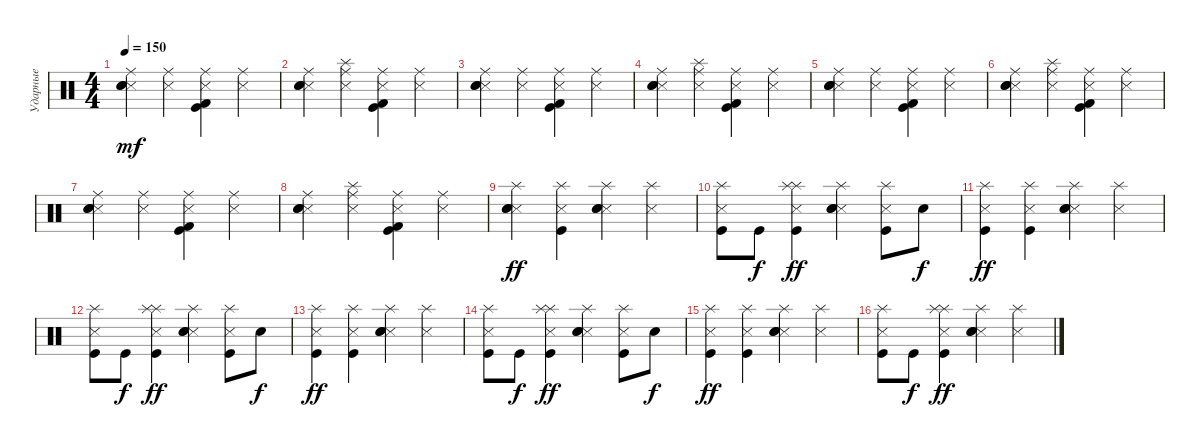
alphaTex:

\track ("Ударные" "Ударные") {instrument percussion}
\staff {score}
\articulation defaults
\ts (4 4)
\tempo 150
\clef neutral
\ks c
("Ride (middle)" "Metronome (hit)" "Electric Snare (hit)" "Snare (hit) 2").4{dy mf} ("Ride (middle)" "Metronome (hit)").4 ("Ride (middle)" "Metronome (hit)" "Kick (hit)" "Kick (hit) 2").4 ("Ride (middle)" "Metronome (hit)").4 |
("Ride (middle)" "Metronome (hit)" "Electric Snare (hit)" "Snare (hit) 2").4 ("Ride (middle)" "Metronome (hit)" "Splash (hit)").4 ("Ride (middle)" "Metronome (hit)" "Kick (hit)" "Kick (hit) 2").4 ("Ride (middle)" "Metronome (hit)").4 |
("Ride (middle)" "Metronome (hit)" "Snare (hit) 2" "Electric Snare (hit)").4 ("Ride (middle)" "Metronome (hit)").4 ("Ride (middle)" "Metronome (hit)" "Kick (hit)" "Kick (hit) 2").4 ("Ride (middle)" "Metronome (hit)").4 |
("Ride (middle)" "Metronome (hit)" "Snare (hit) 2" "Electric Snare (hit)").4 ("Ride (middle)" "Metronome (hit)" "Splash (hit)").4 ("Ride (middle)" "Metronome (hit)" "Kick (hit)" "Kick (hit) 2").4 ("Ride (middle)" "Metronome (hit)").4 |
("Ride (middle)" "Metronome (hit)" "Electric Snare (hit)" "Snare (hit) 2").4 ("Ride (middle)" "Metronome (hit)").4 ("Ride (middle)" "Metronome (hit)" "Kick (hit)" "Kick (hit) 2").4 ("Ride (middle)" "Metronome (hit)").4 |
("Ride (middle)" "Metronome (hit)" "Electric Snare (hit)" "Snare (hit) 2").4 ("Ride (middle)" "Metronome (hit)" "Splash (hit)").4 ("Ride (middle)" "Metronome (hit)" "Kick (hit)" "Kick (hit) 2").4 ("Ride (middle)" "Metronome (hit)").4 |
("Ride (middle)" "Metronome (hit)" "Snare (hit) 2" "Electric Snare (hit)").4 ("Ride (middle)" "Metronome (hit)").4 ("Ride (middle)" "Metronome (hit)" "Kick (hit)" "Kick (hit) 2").4 ("Ride (middle)" "Metronome (hit)").4 |
("Ride (middle)" "Metronome (hit)" "Snare (hit) 2" "Electric Snare (hit)").4 ("Ride (middle)" "Metronome (hit)" "Splash (hit)").4 ("Ride (middle)" "Metronome (hit)" "Kick (hit)" "Kick (hit) 2").4 ("Ride (middle)" "Metronome (hit)").4 |
("Splash (hit)" "Metronome (hit)" "Electric Snare (hit)" "Snare (hit) 2").4{dy ff} ("Splash (hit)" "Metronome (hit)" "Kick (hit)").4 ("Splash (hit)" "Metronome (hit)" "Electric Snare (hit)" "Snare (hit) 2").4 ("Splash (hit)" "Metronome (hit)").4 |
("Splash (hit)" "Metronome (hit)" "Kick (hit)").8 "Kick (hit)".8{dy f} ("Splash (hit)" "Metronome (hit)" "Splash (hit)" "Kick (hit)").4{dy ff} ("Splash (hit)" "Metronome (hit)" "Electric Snare (hit)" "Snare (hit) 2").4 ("Splash (hit)" "Metronome (hit)" "Kick (hit)").8 "Electric Snare (hit)".8{dy f} |
("Splash (hit)" "Metronome (hit)" "Kick (hit)").4{dy ff} ("Splash (hit)" "Metronome (hit)" "Kick (hit)").4 ("Splash (hit)" "Metronome (hit)" "Electric Snare (hit)" "Snare (hit) 2").4 ("Splash (hit)" "Metronome (hit)").4 |
("Splash (hit)" "Metronome (hit)" "Kick (hit)").8 "Kick (hit)".8{dy f} ("Splash (hit)" "Metronome (hit)" "Splash (hit)" "Kick (hit)").4{dy ff} ("Splash (hit)" "Metronome (hit)" "Electric Snare (hit)" "Snare (hit) 2").4 ("Splash (hit)" "Metronome (hit)" "Kick (hit)").8 "Electric Snare (hit)".8{dy f} |
("Splash (hit)" "Metronome (hit)" "Kick (hit)").4{dy ff} ("Splash (hit)" "Metronome (hit)" "Kick (hit)").4 ("Splash (hit)" "Metronome (hit)" "Electric Snare (hit)" "Snare (hit) 2").4 ("Splash (hit)" "Metronome (hit)").4 |
("Splash (hit)" "Metronome (hit)" "Kick (hit)").8 "Kick (hit)".8{dy f} ("Splash (hit)" "Metronome (hit)" "Splash (hit)" "Kick (hit)").4{dy ff} ("Splash (hit)" "Metronome (hit)" "Electric Snare (hit)" "Snare (hit) 2").4 ("Splash (hit)" "Metronome (hit)" "Kick (hit)").8 "Electric Snare (hit)".8{dy f} |
("Splash (hit)" "Metronome (hit)" "Kick (hit)").4{dy ff} ("Splash (hit)" "Metronome (hit)" "Kick (hit)").4 ("Splash (hit)" "Metronome (hit)" "Electric Snare (hit)" "Snare (hit) 2").4 ("Splash (hit)" "Metronome (hit)").4 |
("Splash (hit)" "Metronome (hit)" "Kick (hit)").8 "Kick (hit)".8{dy f} ("Splash (hit)" "Metronome (hit)" "Splash (hit)" "Kick (hit)").4{dy ff} ("Splash (hit)" "Metronome (hit)" "Electric Snare (hit)" "Snare (hit) 2").4 ("Splash (hit)" "Metronome (hit)").4
